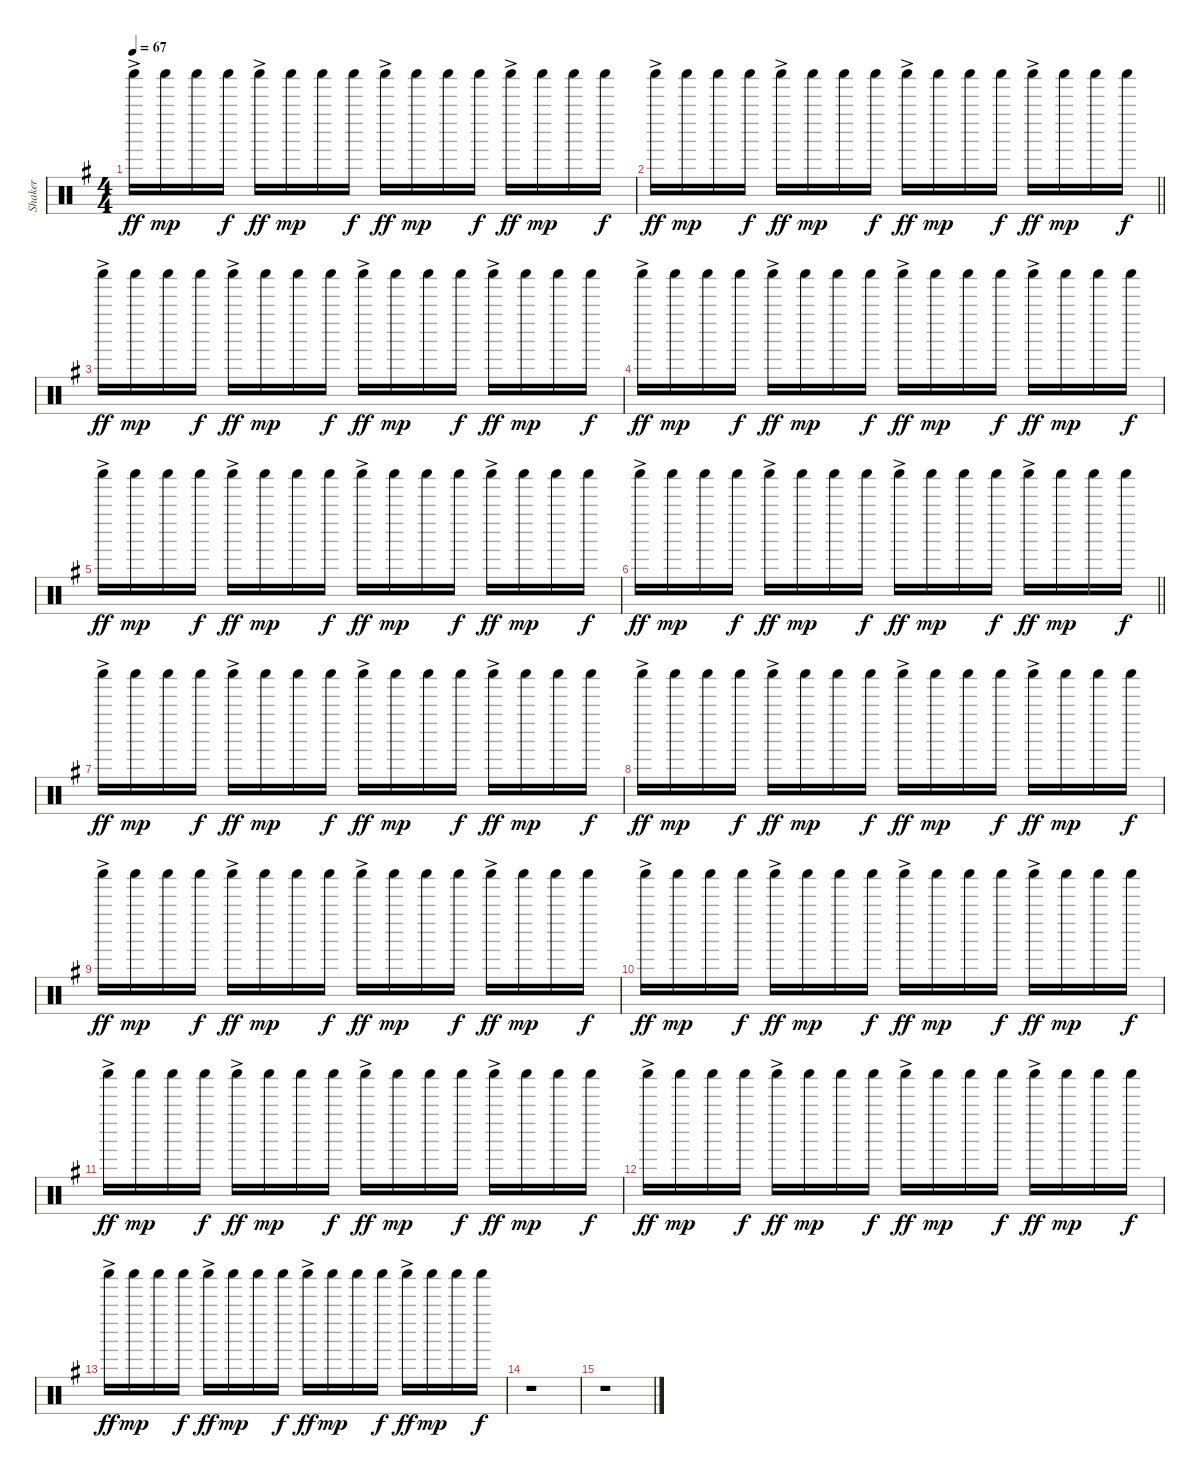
\track ("Shaker" "Shaker") {instrument percussion}
\staff {score}
\articulation defaults
\ts (4 4)
\tempo 67
\clef neutral
\ks g "Shaker (hit)"{ac}.16{dy ff} "Shaker (hit)".16{dy mp} "Shaker (hit)".16 "Shaker (hit)".16{dy f} "Shaker (hit)"{ac}.16{dy ff} "Shaker (hit)".16{dy mp} "Shaker (hit)".16 "Shaker (hit)".16{dy f} "Shaker (hit)"{ac}.16{dy ff} "Shaker (hit)".16{dy mp} "Shaker (hit)".16 "Shaker (hit)".16{dy f} "Shaker (hit)"{ac}.16{dy ff} "Shaker (hit)".16{dy mp} "Shaker (hit)".16 "Shaker (hit)".16{dy f}
|
\barLineRight lightlight "Shaker (hit)"{ac}.16{dy ff} "Shaker (hit)".16{dy mp} "Shaker (hit)".16 "Shaker (hit)".16{dy f} "Shaker (hit)"{ac}.16{dy ff} "Shaker (hit)".16{dy mp} "Shaker (hit)".16 "Shaker (hit)".16{dy f} "Shaker (hit)"{ac}.16{dy ff} "Shaker (hit)".16{dy mp} "Shaker (hit)".16 "Shaker (hit)".16{dy f} "Shaker (hit)"{ac}.16{dy ff} "Shaker (hit)".16{dy mp} "Shaker (hit)".16 "Shaker (hit)".16{dy f}
|
"Shaker (hit)"{ac}.16{dy ff} "Shaker (hit)".16{dy mp} "Shaker (hit)".16 "Shaker (hit)".16{dy f} "Shaker (hit)"{ac}.16{dy ff} "Shaker (hit)".16{dy mp} "Shaker (hit)".16 "Shaker (hit)".16{dy f} "Shaker (hit)"{ac}.16{dy ff} "Shaker (hit)".16{dy mp} "Shaker (hit)".16 "Shaker (hit)".16{dy f} "Shaker (hit)"{ac}.16{dy ff} "Shaker (hit)".16{dy mp} "Shaker (hit)".16 "Shaker (hit)".16{dy f} |
"Shaker (hit)"{ac}.16{dy ff} "Shaker (hit)".16{dy mp} "Shaker (hit)".16 "Shaker (hit)".16{dy f} "Shaker (hit)"{ac}.16{dy ff} "Shaker (hit)".16{dy mp} "Shaker (hit)".16 "Shaker (hit)".16{dy f} "Shaker (hit)"{ac}.16{dy ff} "Shaker (hit)".16{dy mp} "Shaker (hit)".16 "Shaker (hit)".16{dy f} "Shaker (hit)"{ac}.16{dy ff} "Shaker (hit)".16{dy mp} "Shaker (hit)".16 "Shaker (hit)".16{dy f} |
"Shaker (hit)"{ac}.16{dy ff} "Shaker (hit)".16{dy mp} "Shaker (hit)".16 "Shaker (hit)".16{dy f} "Shaker (hit)"{ac}.16{dy ff} "Shaker (hit)".16{dy mp} "Shaker (hit)".16 "Shaker (hit)".16{dy f} "Shaker (hit)"{ac}.16{dy ff} "Shaker (hit)".16{dy mp} "Shaker (hit)".16 "Shaker (hit)".16{dy f} "Shaker (hit)"{ac}.16{dy ff} "Shaker (hit)".16{dy mp} "Shaker (hit)".16 "Shaker (hit)".16{dy f} |
\barLineRight lightlight "Shaker (hit)"{ac}.16{dy ff} "Shaker (hit)".16{dy mp} "Shaker (hit)".16 "Shaker (hit)".16{dy f} "Shaker (hit)"{ac}.16{dy ff} "Shaker (hit)".16{dy mp} "Shaker (hit)".16 "Shaker (hit)".16{dy f} "Shaker (hit)"{ac}.16{dy ff} "Shaker (hit)".16{dy mp} "Shaker (hit)".16 "Shaker (hit)".16{dy f} "Shaker (hit)"{ac}.16{dy ff} "Shaker (hit)".16{dy mp} "Shaker (hit)".16 "Shaker (hit)".16{dy f}
|
"Shaker (hit)"{ac}.16{dy ff} "Shaker (hit)".16{dy mp} "Shaker (hit)".16 "Shaker (hit)".16{dy f} "Shaker (hit)"{ac}.16{dy ff} "Shaker (hit)".16{dy mp} "Shaker (hit)".16 "Shaker (hit)".16{dy f} "Shaker (hit)"{ac}.16{dy ff} "Shaker (hit)".16{dy mp} "Shaker (hit)".16 "Shaker (hit)".16{dy f} "Shaker (hit)"{ac}.16{dy ff} "Shaker (hit)".16{dy mp} "Shaker (hit)".16 "Shaker (hit)".16{dy f} |
"Shaker (hit)"{ac}.16{dy ff} "Shaker (hit)".16{dy mp} "Shaker (hit)".16 "Shaker (hit)".16{dy f} "Shaker (hit)"{ac}.16{dy ff} "Shaker (hit)".16{dy mp} "Shaker (hit)".16 "Shaker (hit)".16{dy f} "Shaker (hit)"{ac}.16{dy ff} "Shaker (hit)".16{dy mp} "Shaker (hit)".16 "Shaker (hit)".16{dy f} "Shaker (hit)"{ac}.16{dy ff} "Shaker (hit)".16{dy mp} "Shaker (hit)".16 "Shaker (hit)".16{dy f} |
"Shaker (hit)"{ac}.16{dy ff} "Shaker (hit)".16{dy mp} "Shaker (hit)".16 "Shaker (hit)".16{dy f} "Shaker (hit)"{ac}.16{dy ff} "Shaker (hit)".16{dy mp} "Shaker (hit)".16 "Shaker (hit)".16{dy f} "Shaker (hit)"{ac}.16{dy ff} "Shaker (hit)".16{dy mp} "Shaker (hit)".16 "Shaker (hit)".16{dy f} "Shaker (hit)"{ac}.16{dy ff} "Shaker (hit)".16{dy mp} "Shaker (hit)".16 "Shaker (hit)".16{dy f} |
"Shaker (hit)"{ac}.16{dy ff} "Shaker (hit)".16{dy mp} "Shaker (hit)".16 "Shaker (hit)".16{dy f} "Shaker (hit)"{ac}.16{dy ff} "Shaker (hit)".16{dy mp} "Shaker (hit)".16 "Shaker (hit)".16{dy f} "Shaker (hit)"{ac}.16{dy ff} "Shaker (hit)".16{dy mp} "Shaker (hit)".16 "Shaker (hit)".16{dy f} "Shaker (hit)"{ac}.16{dy ff} "Shaker (hit)".16{dy mp} "Shaker (hit)".16 "Shaker (hit)".16{dy f} |
"Shaker (hit)"{ac}.16{dy ff} "Shaker (hit)".16{dy mp} "Shaker (hit)".16 "Shaker (hit)".16{dy f} "Shaker (hit)"{ac}.16{dy ff} "Shaker (hit)".16{dy mp} "Shaker (hit)".16 "Shaker (hit)".16{dy f} "Shaker (hit)"{ac}.16{dy ff} "Shaker (hit)".16{dy mp} "Shaker (hit)".16 "Shaker (hit)".16{dy f} "Shaker (hit)"{ac}.16{dy ff} "Shaker (hit)".16{dy mp} "Shaker (hit)".16 "Shaker (hit)".16{dy f} |
"Shaker (hit)"{ac}.16{dy ff} "Shaker (hit)".16{dy mp} "Shaker (hit)".16 "Shaker (hit)".16{dy f} "Shaker (hit)"{ac}.16{dy ff} "Shaker (hit)".16{dy mp} "Shaker (hit)".16 "Shaker (hit)".16{dy f} "Shaker (hit)"{ac}.16{dy ff} "Shaker (hit)".16{dy mp} "Shaker (hit)".16 "Shaker (hit)".16{dy f} "Shaker (hit)"{ac}.16{dy ff} "Shaker (hit)".16{dy mp} "Shaker (hit)".16 "Shaker (hit)".16{dy f} |
"Shaker (hit)"{ac}.16{dy ff} "Shaker (hit)".16{dy mp} "Shaker (hit)".16 "Shaker (hit)".16{dy f} "Shaker (hit)"{ac}.16{dy ff} "Shaker (hit)".16{dy mp} "Shaker (hit)".16 "Shaker (hit)".16{dy f} "Shaker (hit)"{ac}.16{dy ff} "Shaker (hit)".16{dy mp} "Shaker (hit)".16 "Shaker (hit)".16{dy f} "Shaker (hit)"{ac}.16{dy ff} "Shaker (hit)".16{dy mp} "Shaker (hit)".16 "Shaker (hit)".16{dy f} |
r.1 |
r.1
